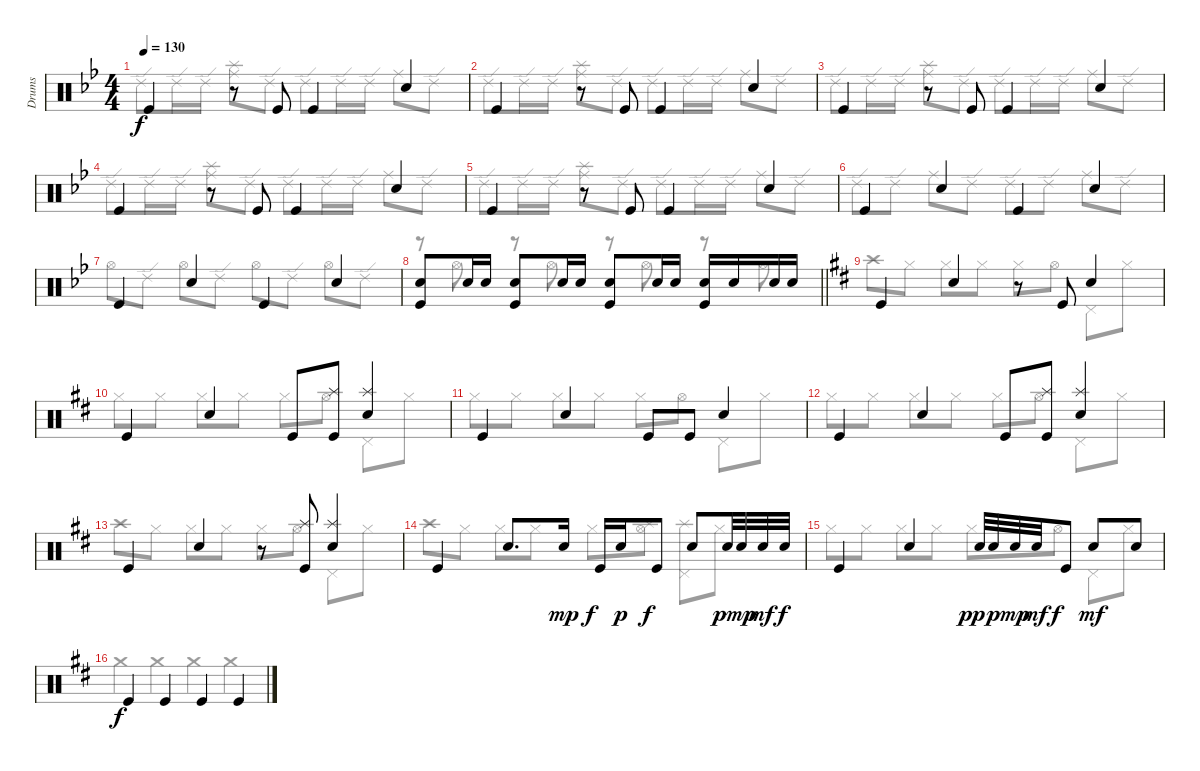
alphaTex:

\track ("Drums" "Drums") {instrument percussion}
\staff {score}
\articulation defaults
\voice
\ts (4 4)
\tempo 130
\clef neutral
\ks gminor "Kick (hit)".4{dy f}
r.8 "Kick (hit)".8 "Kick (hit)".4 "Snare (hit) 2".4 |
"Kick (hit)".4 r.8 "Kick (hit)".8 "Kick (hit)".4 "Snare (hit) 2".4 |
"Kick (hit)".4 r.8 "Kick (hit)".8 "Kick (hit)".4 "Snare (hit) 2".4 |
"Kick (hit)".4 r.8 "Kick (hit)".8 "Kick (hit)".4 "Snare (hit) 2".4 |
"Kick (hit)".4 r.8 "Kick (hit)".8 "Kick (hit)".4 "Snare (hit) 2".4 |
"Kick (hit)".4 "Snare (hit) 2".4 "Kick (hit)".4 "Snare (hit) 2".4 |
"Kick (hit)".4 "Snare (hit) 2".4 "Kick (hit)".4 "Snare (hit) 2".4 |
\barLineRight lightlight
("Snare (hit) 2" "Kick (hit)").8 "Snare (hit) 2".16 "Snare (hit) 2".16 ("Snare (hit) 2" "Kick (hit)").8 "Snare (hit) 2".16 "Snare (hit) 2".16 ("Snare (hit) 2" "Kick (hit)").8 "Snare (hit) 2".16 "Snare (hit) 2".16 ("Snare (hit) 2" "Kick (hit)").16 "Snare (hit) 2".16 "Snare (hit) 2".16 "Snare (hit) 2".16 |
\ks d "Kick (hit)".4 "Snare (hit) 2".4
r.8 "Kick (hit)".8 "Snare (hit) 2".4 |
"Kick (hit)".4 "Snare (hit) 2".4 "Kick (hit)".8 ("Splash (hit)" "Kick (hit)").8 ("Splash (hit)" "Snare (hit) 2").4 |
"Kick (hit)".4 "Snare (hit) 2".4 "Kick (hit)".8 "Kick (hit)".8 "Snare (hit) 2".4 |
"Kick (hit)".4 "Snare (hit) 2".4 "Kick (hit)".8 ("Splash (hit)" "Kick (hit)").8 ("Splash (hit)" "Snare (hit) 2").4 |
"Kick (hit)".4 "Snare (hit) 2".4 r.8 ("Splash (hit)" "Kick (hit)").8 ("Splash (hit)" "Snare (hit) 2").4 |
"Kick (hit)".4 "Snare (hit) 2".8{d} "Snare (hit) 2".16{dy mp} "Kick (hit)".16{dy f} "Snare (hit) 2".16{dy p} "Kick (hit)".8{dy f} "Snare (hit) 2".8 "Snare (hit) 2".32{dy p} "Snare (hit) 2".32{dy mp} "Snare (hit) 2".32{dy mf} "Snare (hit) 2".32{dy f} |
"Kick (hit)".4 "Snare (hit) 2".4 "Snare (hit) 2".32{dy pp} "Snare (hit) 2".32{dy p} "Snare (hit) 2".32{dy mp} "Snare (hit) 2".32{dy mf} "Kick (hit)".8{dy f} "Snare (hit) 2".8{dy mf} "Snare (hit) 2".8 |
"Kick (hit)".4{dy f} "Kick (hit)".4 "Kick (hit)".4 "Kick (hit)".4
\voice
\clef neutral
\ottava regular
\simile none
\ks gminor "Ride (edge) 2".8{dy f} "Ride (edge) 2".16 "Ride (edge) 2".16
("Ride (middle)" "Splash (hit)").8 "Ride (edge) 2".8 "Ride (edge) 2".8 "Ride (edge) 2".16 "Ride (edge) 2".16 "Ride (middle)".8 "Ride (edge) 2".8 |
"Ride (edge) 2".8 "Ride (edge) 2".16 "Ride (edge) 2".16 ("Ride (middle)" "Splash (hit)").8 "Ride (edge) 2".8 "Ride (edge) 2".8 "Ride (edge) 2".16 "Ride (edge) 2".16 "Ride (middle)".8 "Ride (edge) 2".8 |
"Ride (edge) 2".8 "Ride (edge) 2".16 "Ride (edge) 2".16 ("Ride (middle)" "Splash (hit)").8 "Ride (edge) 2".8 "Ride (edge) 2".8 "Ride (edge) 2".16 "Ride (edge) 2".16 "Ride (middle)".8 "Ride (edge) 2".8 |
"Ride (edge) 2".8 "Ride (edge) 2".16 "Ride (edge) 2".16 ("Ride (middle)" "Splash (hit)").8 "Ride (edge) 2".8 "Ride (edge) 2".8 "Ride (edge) 2".16 "Ride (edge) 2".16 "Ride (middle)".8 "Ride (edge) 2".8 |
"Ride (edge) 2".8 "Ride (edge) 2".16 "Ride (edge) 2".16 ("Ride (middle)" "Splash (hit)").8 "Ride (edge) 2".8 "Ride (edge) 2".8 "Ride (edge) 2".16 "Ride (edge) 2".16 "Ride (middle)".8 "Ride (edge) 2".8 |
"Ride (edge) 2".8 "Ride (edge) 2".8 "Ride (middle)".8 "Ride (edge) 2".8 "Ride (edge) 2".8 "Ride (edge) 2".8 "Ride (middle)".8 "Ride (edge) 2".8 |
"Hi-Hat (open)".8 "Ride (edge) 2".8 "Hi-Hat (open)".8 "Ride (edge) 2".8 "Hi-Hat (open)".8 "Ride (edge) 2".8 "Hi-Hat (open)".8 "Ride (edge) 2".8 |
\barLineRight lightlight
r.8 "Hi-Hat (open)".8 r.8 "Hi-Hat (open)".8 r.8 "Hi-Hat (open)".8 r.8 "Hi-Hat (open)".8 |
\ks d "Crash high (hit)".8 "Hi-Hat (closed)".8 "Hi-Hat (closed)".8 "Hi-Hat (closed)".8 "Hi-Hat (closed)".8 "Hi-Hat (open)".8 "Pedal Hi-Hat (hit)".8 "Hi-Hat (closed)".8
|
"Hi-Hat (closed)".8 "Hi-Hat (closed)".8 "Hi-Hat (closed)".8 "Hi-Hat (closed)".8 "Hi-Hat (closed)".8 "Hi-Hat (open)".8 "Pedal Hi-Hat (hit)".8 "Hi-Hat (closed)".8 |
"Hi-Hat (closed)".8 "Hi-Hat (closed)".8 "Hi-Hat (closed)".8 "Hi-Hat (closed)".8 "Hi-Hat (closed)".8 "Hi-Hat (open)".8 "Pedal Hi-Hat (hit)".8 "Hi-Hat (closed)".8 |
"Hi-Hat (closed)".8 "Hi-Hat (closed)".8 "Hi-Hat (closed)".8 "Hi-Hat (closed)".8 "Hi-Hat (closed)".8 "Hi-Hat (open)".8 "Pedal Hi-Hat (hit)".8 "Hi-Hat (closed)".8 |
"Crash high (hit)".8 "Hi-Hat (closed)".8 "Hi-Hat (closed)".8 "Hi-Hat (closed)".8 "Hi-Hat (closed)".8 "Hi-Hat (open)".8 "Pedal Hi-Hat (hit)".8 "Hi-Hat (closed)".8 |
"Crash high (hit)".8 "Hi-Hat (closed)".8 "Hi-Hat (closed)".8 "Hi-Hat (closed)".8 "Hi-Hat (closed)".8 ("Hi-Hat (open)" "Splash (hit)").8 ("Pedal Hi-Hat (hit)" "Splash (hit)").8 "Hi-Hat (closed)".8 |
"Hi-Hat (closed)".8 "Hi-Hat (closed)".8 "Hi-Hat (closed)".8 "Hi-Hat (closed)".8 "Hi-Hat (closed)".8 "Hi-Hat (open)".8 "Pedal Hi-Hat (hit)".8 "Hi-Hat (closed)".8 |
"Crash medium (hit)".4 "Crash medium (hit)".4 "Crash medium (hit)".4 "Crash medium (hit)".4
